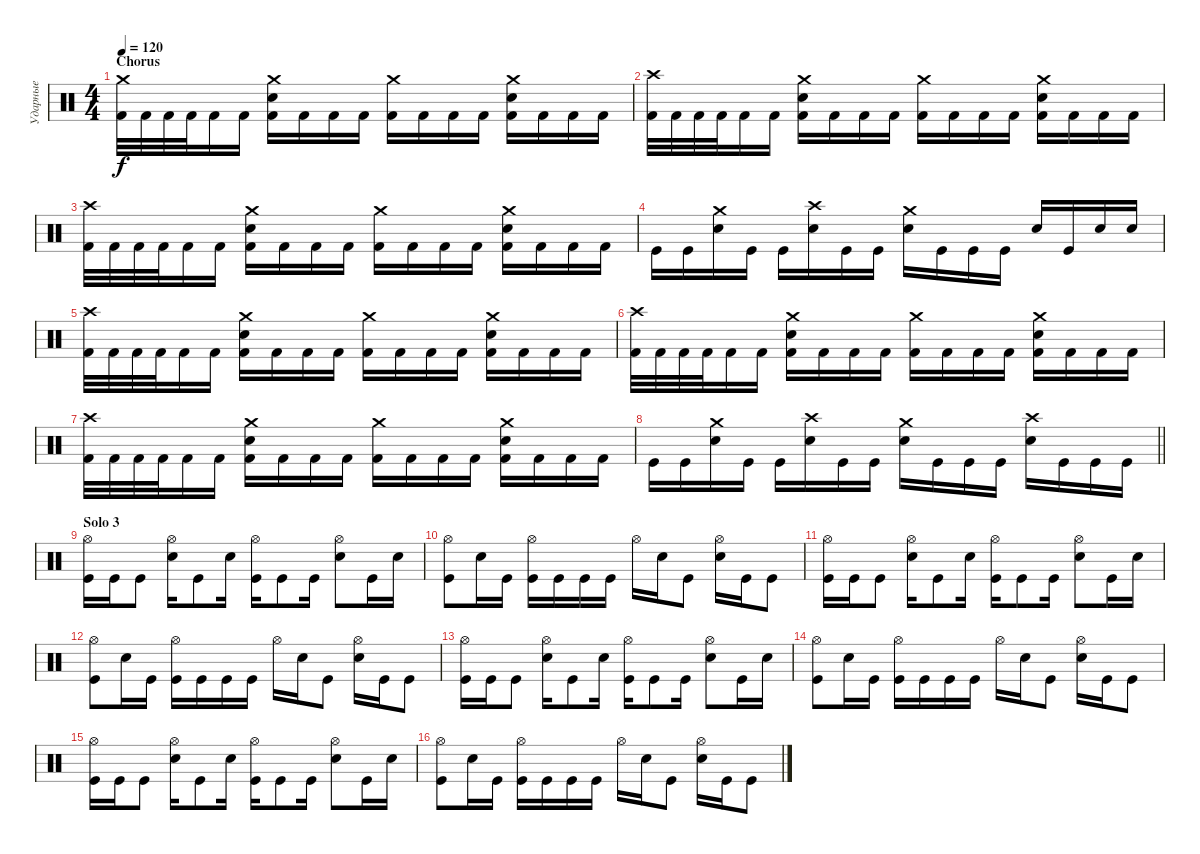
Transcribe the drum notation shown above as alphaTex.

\track ("Ударные" "Ударные") {instrument percussion}
\staff {score}
\articulation defaults
\ts (4 4)
\section ("" "Chorus")
\tempo 120
\clef neutral
\ks c
("Crash medium (hit)" "Kick (hit) 2").32{dy f} "Kick (hit) 2".32 "Kick (hit) 2".32 "Kick (hit) 2".32 "Kick (hit) 2".16 "Kick (hit) 2".16 ("Crash medium (hit)" "Electric Snare (hit)" "Kick (hit) 2").16 "Kick (hit) 2".16 "Kick (hit) 2".16 "Kick (hit) 2".16 ("Crash medium (hit)" "Kick (hit) 2").16 "Kick (hit) 2".16 "Kick (hit) 2".16 "Kick (hit) 2".16 ("Crash medium (hit)" "Electric Snare (hit)" "Kick (hit) 2").16 "Kick (hit) 2".16 "Kick (hit) 2".16 "Kick (hit) 2".16 |
("Crash high (hit)" "Kick (hit) 2").32 "Kick (hit) 2".32 "Kick (hit) 2".32 "Kick (hit) 2".32 "Kick (hit) 2".16 "Kick (hit) 2".16 ("Crash medium (hit)" "Electric Snare (hit)" "Kick (hit) 2").16 "Kick (hit) 2".16 "Kick (hit) 2".16 "Kick (hit) 2".16 ("Crash medium (hit)" "Kick (hit) 2").16 "Kick (hit) 2".16 "Kick (hit) 2".16 "Kick (hit) 2".16 ("Crash medium (hit)" "Electric Snare (hit)" "Kick (hit) 2").16 "Kick (hit) 2".16 "Kick (hit) 2".16 "Kick (hit) 2".16 |
("Crash high (hit)" "Kick (hit) 2").32 "Kick (hit) 2".32 "Kick (hit) 2".32 "Kick (hit) 2".32 "Kick (hit) 2".16 "Kick (hit) 2".16 ("Crash medium (hit)" "Electric Snare (hit)" "Kick (hit) 2").16 "Kick (hit) 2".16 "Kick (hit) 2".16 "Kick (hit) 2".16 ("Crash medium (hit)" "Kick (hit) 2").16 "Kick (hit) 2".16 "Kick (hit) 2".16 "Kick (hit) 2".16 ("Crash medium (hit)" "Electric Snare (hit)" "Kick (hit) 2").16 "Kick (hit) 2".16 "Kick (hit) 2".16 "Kick (hit) 2".16 |
"Kick (hit)".16 "Kick (hit)".16 ("Crash medium (hit)" "Electric Snare (hit)").16 "Kick (hit)".16 "Kick (hit)".16 ("Crash high (hit)" "Electric Snare (hit)").16 "Kick (hit)".16 "Kick (hit)".16 ("Crash medium (hit)" "Electric Snare (hit)").16 "Kick (hit)".16 "Kick (hit)".16 "Kick (hit)".16 "Electric Snare (hit)".16 "Kick (hit)".16 "Electric Snare (hit)".16 "Electric Snare (hit)".16 |
("Crash high (hit)" "Kick (hit) 2").32 "Kick (hit) 2".32 "Kick (hit) 2".32 "Kick (hit) 2".32 "Kick (hit) 2".16 "Kick (hit) 2".16 ("Crash medium (hit)" "Electric Snare (hit)" "Kick (hit) 2").16 "Kick (hit) 2".16 "Kick (hit) 2".16 "Kick (hit) 2".16 ("Crash medium (hit)" "Kick (hit) 2").16 "Kick (hit) 2".16 "Kick (hit) 2".16 "Kick (hit) 2".16 ("Crash medium (hit)" "Electric Snare (hit)" "Kick (hit) 2").16 "Kick (hit) 2".16 "Kick (hit) 2".16 "Kick (hit) 2".16 |
("Crash high (hit)" "Kick (hit) 2").32 "Kick (hit) 2".32 "Kick (hit) 2".32 "Kick (hit) 2".32 "Kick (hit) 2".16 "Kick (hit) 2".16 ("Crash medium (hit)" "Electric Snare (hit)" "Kick (hit) 2").16 "Kick (hit) 2".16 "Kick (hit) 2".16 "Kick (hit) 2".16 ("Crash medium (hit)" "Kick (hit) 2").16 "Kick (hit) 2".16 "Kick (hit) 2".16 "Kick (hit) 2".16 ("Crash medium (hit)" "Electric Snare (hit)" "Kick (hit) 2").16 "Kick (hit) 2".16 "Kick (hit) 2".16 "Kick (hit) 2".16 |
("Crash high (hit)" "Kick (hit) 2").32 "Kick (hit) 2".32 "Kick (hit) 2".32 "Kick (hit) 2".32 "Kick (hit) 2".16 "Kick (hit) 2".16 ("Crash medium (hit)" "Electric Snare (hit)" "Kick (hit) 2").16 "Kick (hit) 2".16 "Kick (hit) 2".16 "Kick (hit) 2".16 ("Crash medium (hit)" "Kick (hit) 2").16 "Kick (hit) 2".16 "Kick (hit) 2".16 "Kick (hit) 2".16 ("Crash medium (hit)" "Electric Snare (hit)" "Kick (hit) 2").16 "Kick (hit) 2".16 "Kick (hit) 2".16 "Kick (hit) 2".16 |
\barLineRight lightlight "Kick (hit)".16 "Kick (hit)".16
("Crash medium (hit)" "Electric Snare (hit)").16 "Kick (hit)".16 "Kick (hit)".16 ("Crash high (hit)" "Electric Snare (hit)").16 "Kick (hit)".16 "Kick (hit)".16 ("Crash medium (hit)" "Electric Snare (hit)").16 "Kick (hit)".16 "Kick (hit)".16 "Kick (hit)".16 ("Crash high (hit)" "Electric Snare (hit)").16 "Kick (hit)".16 "Kick (hit)".16 "Kick (hit)".16 |
\section ("" "Solo 3")
("Hi-Hat (open)" "Kick (hit)").16 "Kick (hit)".16 "Kick (hit)".8 ("Hi-Hat (open)" "Electric Snare (hit)").16 "Kick (hit)".8 "Electric Snare (hit)".16 ("Hi-Hat (open)" "Kick (hit)").16 "Kick (hit)".8 "Kick (hit)".16 ("Hi-Hat (open)" "Electric Snare (hit)").8 "Kick (hit)".16 "Electric Snare (hit)".16 |
("Hi-Hat (open)" "Kick (hit)").8 "Electric Snare (hit)".16 "Kick (hit)".16 ("Hi-Hat (open)" "Kick (hit)").16 "Kick (hit)".16 "Kick (hit)".16 "Kick (hit)".16 "Hi-Hat (open)".16 "Electric Snare (hit)".16 "Kick (hit)".8 ("Hi-Hat (open)" "Electric Snare (hit)").16 "Kick (hit)".16 "Kick (hit)".8 |
("Hi-Hat (open)" "Kick (hit)").16 "Kick (hit)".16 "Kick (hit)".8 ("Hi-Hat (open)" "Electric Snare (hit)").16 "Kick (hit)".8 "Electric Snare (hit)".16 ("Hi-Hat (open)" "Kick (hit)").16 "Kick (hit)".8 "Kick (hit)".16 ("Hi-Hat (open)" "Electric Snare (hit)").8 "Kick (hit)".16 "Electric Snare (hit)".16 |
("Hi-Hat (open)" "Kick (hit)").8 "Electric Snare (hit)".16 "Kick (hit)".16 ("Hi-Hat (open)" "Kick (hit)").16 "Kick (hit)".16 "Kick (hit)".16 "Kick (hit)".16 "Hi-Hat (open)".16 "Electric Snare (hit)".16 "Kick (hit)".8 ("Hi-Hat (open)" "Electric Snare (hit)").16 "Kick (hit)".16 "Kick (hit)".8 |
("Hi-Hat (open)" "Kick (hit)").16 "Kick (hit)".16 "Kick (hit)".8 ("Hi-Hat (open)" "Electric Snare (hit)").16 "Kick (hit)".8 "Electric Snare (hit)".16 ("Hi-Hat (open)" "Kick (hit)").16 "Kick (hit)".8 "Kick (hit)".16 ("Hi-Hat (open)" "Electric Snare (hit)").8 "Kick (hit)".16 "Electric Snare (hit)".16 |
("Hi-Hat (open)" "Kick (hit)").8 "Electric Snare (hit)".16 "Kick (hit)".16 ("Hi-Hat (open)" "Kick (hit)").16 "Kick (hit)".16 "Kick (hit)".16 "Kick (hit)".16 "Hi-Hat (open)".16 "Electric Snare (hit)".16 "Kick (hit)".8 ("Hi-Hat (open)" "Electric Snare (hit)").16 "Kick (hit)".16 "Kick (hit)".8 |
("Hi-Hat (open)" "Kick (hit)").16 "Kick (hit)".16 "Kick (hit)".8 ("Hi-Hat (open)" "Electric Snare (hit)").16 "Kick (hit)".8 "Electric Snare (hit)".16 ("Hi-Hat (open)" "Kick (hit)").16 "Kick (hit)".8 "Kick (hit)".16 ("Hi-Hat (open)" "Electric Snare (hit)").8 "Kick (hit)".16 "Electric Snare (hit)".16 |
("Hi-Hat (open)" "Kick (hit)").8 "Electric Snare (hit)".16 "Kick (hit)".16 ("Hi-Hat (open)" "Kick (hit)").16 "Kick (hit)".16 "Kick (hit)".16 "Kick (hit)".16 "Hi-Hat (open)".16 "Electric Snare (hit)".16 "Kick (hit)".8 ("Hi-Hat (open)" "Electric Snare (hit)").16 "Kick (hit)".16 "Kick (hit)".8
